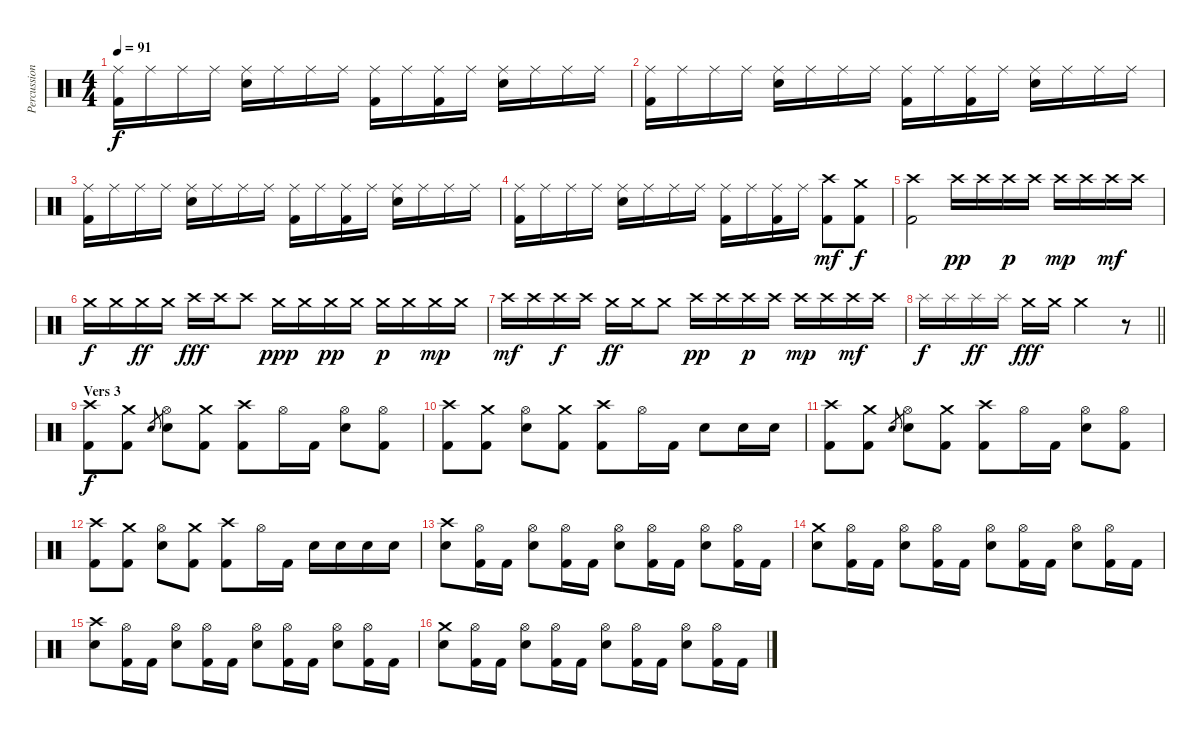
\track ("Percussion" "Percussion") {instrument percussion}
\staff {score}
\articulation defaults
\ts (4 4)
\tempo 91
\clef neutral
\ks c
("Ride (middle)" "Kick (hit) 2").16{dy f} "Ride (middle)".16 "Ride (middle)".16 "Ride (middle)".16 ("Snare (hit) 2" "Ride (middle)").16 "Ride (middle)".16 "Ride (middle)".16 "Ride (middle)".16 ("Ride (middle)" "Kick (hit) 2").16 "Ride (middle)".16 ("Ride (middle)" "Kick (hit) 2").16 "Ride (middle)".16 ("Snare (hit) 2" "Ride (middle)").16 "Ride (middle)".16 "Ride (middle)".16 "Ride (middle)".16 |
("Ride (middle)" "Kick (hit) 2").16 "Ride (middle)".16 "Ride (middle)".16 "Ride (middle)".16 ("Snare (hit) 2" "Ride (middle)").16 "Ride (middle)".16 "Ride (middle)".16 "Ride (middle)".16 ("Ride (middle)" "Kick (hit) 2").16 "Ride (middle)".16 ("Ride (middle)" "Kick (hit) 2").16 "Ride (middle)".16 ("Snare (hit) 2" "Ride (middle)").16 "Ride (middle)".16 "Ride (middle)".16 "Ride (middle)".16 |
("Ride (middle)" "Kick (hit) 2").16 "Ride (middle)".16 "Ride (middle)".16 "Ride (middle)".16 ("Snare (hit) 2" "Ride (middle)").16 "Ride (middle)".16 "Ride (middle)".16 "Ride (middle)".16 ("Ride (middle)" "Kick (hit) 2").16 "Ride (middle)".16 ("Ride (middle)" "Kick (hit) 2").16 "Ride (middle)".16 ("Snare (hit) 2" "Ride (middle)").16 "Ride (middle)".16 "Ride (middle)".16 "Ride (middle)".16 |
("Ride (middle)" "Kick (hit) 2").16 "Ride (middle)".16 "Ride (middle)".16 "Ride (middle)".16 ("Snare (hit) 2" "Ride (middle)").16 "Ride (middle)".16 "Ride (middle)".16 "Ride (middle)".16 ("Ride (middle)" "Kick (hit) 2").16 "Ride (middle)".16 ("Ride (middle)" "Kick (hit) 2").16 "Ride (middle)".16 ("Crash high (hit)" "Kick (hit) 2").8{dy mf} ("Crash medium (hit)" "Kick (hit) 2").8{dy f} |
("Crash high (hit)" "Kick (hit) 2").2 "Crash high (hit)".16{dy pp} "Crash high (hit)".16 "Crash high (hit)".16{dy p} "Crash high (hit)".16 "Crash high (hit)".16{dy mp} "Crash high (hit)".16 "Crash high (hit)".16{dy mf} "Crash high (hit)".16 |
"Crash medium (hit)".16{dy f} "Crash medium (hit)".16 "Crash medium (hit)".16{dy ff} "Crash medium (hit)".16 "Crash high (hit)".16{dy fff} "Crash high (hit)".16 "Crash high (hit)".8 "Crash medium (hit)".16{dy ppp} "Crash medium (hit)".16 "Crash medium (hit)".16{dy pp} "Crash medium (hit)".16 "Crash medium (hit)".16{dy p} "Crash medium (hit)".16 "Crash medium (hit)".16{dy mp} "Crash medium (hit)".16 |
"Crash high (hit)".16{dy mf} "Crash high (hit)".16 "Crash high (hit)".16{dy f} "Crash high (hit)".16 "Crash medium (hit)".16{dy ff} "Crash medium (hit)".16 "Crash medium (hit)".8 "Crash high (hit)".16{dy pp} "Crash high (hit)".16 "Crash high (hit)".16{dy p} "Crash high (hit)".16 "Crash high (hit)".16{dy mp} "Crash high (hit)".16 "Crash high (hit)".16{dy mf} "Crash high (hit)".16 |
\barLineRight lightlight "Splash (hit)".16{dy f} "Splash (hit)".16 "Splash (hit)".16{dy ff} "Splash (hit)".16 "Crash medium (hit)".16{dy fff} "Crash medium (hit)".16 "Crash medium (hit)".2
r.8 |
\section ("" "Vers 3")
("Crash high (hit)" "Kick (hit) 2").8{dy f} ("Crash medium (hit)" "Kick (hit) 2").8 "Snare (hit) 2".8{gr} ("Snare (hit) 2" "Hi-Hat (open)").8 ("Crash medium (hit)" "Kick (hit) 2").8 ("Crash high (hit)" "Kick (hit) 2").8 "Hi-Hat (open)".16 "Kick (hit) 2".16 ("Snare (hit) 2" "Hi-Hat (open)").8 ("Hi-Hat (open)" "Kick (hit) 2").8 |
("Crash high (hit)" "Kick (hit) 2").8 ("Crash medium (hit)" "Kick (hit) 2").8 ("Snare (hit) 2" "Hi-Hat (open)").8 ("Crash medium (hit)" "Kick (hit) 2").8 ("Crash high (hit)" "Kick (hit) 2").8 "Hi-Hat (open)".16 "Kick (hit) 2".16 "Snare (hit) 2".8 "Snare (hit) 2".16 "Snare (hit) 2".16 |
("Crash high (hit)" "Kick (hit) 2").8 ("Crash medium (hit)" "Kick (hit) 2").8 "Snare (hit) 2".8{gr} ("Snare (hit) 2" "Hi-Hat (open)").8 ("Crash medium (hit)" "Kick (hit) 2").8 ("Crash high (hit)" "Kick (hit) 2").8 "Hi-Hat (open)".16 "Kick (hit) 2".16 ("Snare (hit) 2" "Hi-Hat (open)").8 ("Hi-Hat (open)" "Kick (hit) 2").8 |
("Crash high (hit)" "Kick (hit) 2").8 ("Crash medium (hit)" "Kick (hit) 2").8 ("Snare (hit) 2" "Hi-Hat (open)").8 ("Crash medium (hit)" "Kick (hit) 2").8 ("Crash high (hit)" "Kick (hit) 2").8 "Hi-Hat (open)".16 "Kick (hit) 2".16 "Snare (hit) 2".16 "Snare (hit) 2".16 "Snare (hit) 2".16 "Snare (hit) 2".16 |
("Snare (hit) 2" "Crash high (hit)").8 ("Hi-Hat (open)" "Kick (hit) 2").16 "Kick (hit) 2".16 ("Snare (hit) 2" "Hi-Hat (open)").8 ("Hi-Hat (open)" "Kick (hit) 2").16 "Kick (hit) 2".16 ("Snare (hit) 2" "Hi-Hat (open)").8 ("Hi-Hat (open)" "Kick (hit) 2").16 "Kick (hit) 2".16 ("Snare (hit) 2" "Hi-Hat (open)").8 ("Hi-Hat (open)" "Kick (hit) 2").16 "Kick (hit) 2".16 |
("Snare (hit) 2" "Crash medium (hit)").8 ("Hi-Hat (open)" "Kick (hit) 2").16 "Kick (hit) 2".16 ("Snare (hit) 2" "Hi-Hat (open)").8 ("Hi-Hat (open)" "Kick (hit) 2").16 "Kick (hit) 2".16 ("Snare (hit) 2" "Hi-Hat (open)").8 ("Hi-Hat (open)" "Kick (hit) 2").16 "Kick (hit) 2".16 ("Snare (hit) 2" "Hi-Hat (open)").8 ("Hi-Hat (open)" "Kick (hit) 2").16 "Kick (hit) 2".16 |
("Snare (hit) 2" "Crash high (hit)").8 ("Hi-Hat (open)" "Kick (hit) 2").16 "Kick (hit) 2".16 ("Snare (hit) 2" "Hi-Hat (open)").8 ("Hi-Hat (open)" "Kick (hit) 2").16 "Kick (hit) 2".16 ("Snare (hit) 2" "Hi-Hat (open)").8 ("Hi-Hat (open)" "Kick (hit) 2").16 "Kick (hit) 2".16 ("Snare (hit) 2" "Hi-Hat (open)").8 ("Hi-Hat (open)" "Kick (hit) 2").16 "Kick (hit) 2".16 |
("Snare (hit) 2" "Crash medium (hit)").8 ("Hi-Hat (open)" "Kick (hit) 2").16 "Kick (hit) 2".16 ("Snare (hit) 2" "Hi-Hat (open)").8 ("Hi-Hat (open)" "Kick (hit) 2").16 "Kick (hit) 2".16 ("Snare (hit) 2" "Hi-Hat (open)").8 ("Hi-Hat (open)" "Kick (hit) 2").16 "Kick (hit) 2".16 ("Snare (hit) 2" "Hi-Hat (open)").8 ("Hi-Hat (open)" "Kick (hit) 2").16 "Kick (hit) 2".16
